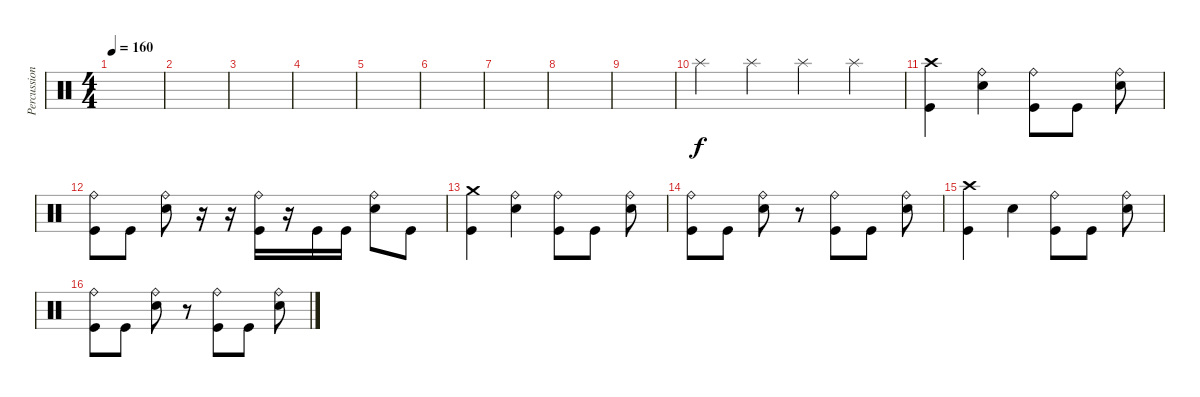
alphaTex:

\track ("Percussion" "Percussion") {instrument percussion}
\staff {score}
\articulation defaults
\ts (4 4)
\tempo 160
\clef neutral
\ks c
|
|
|
|
|
|
|
|
|
"Splash (hit)".4 "Splash (hit)".4 "Splash (hit)".4 "Splash (hit)".4 |
("Kick (hit)" "Crash high (hit)").4 ("Electric Snare (hit)" "Ride (bell)").4 ("Kick (hit)" "Ride (bell)").8 "Kick (hit)".8 ("Electric Snare (hit)" "Ride (bell)").8 |
("Ride (bell)" "Kick (hit)").8 "Kick (hit)".8 ("Ride (bell)" "Electric Snare (hit)").8 r.16 r.16 ("Ride (bell)" "Kick (hit)").16 r.16 "Kick (hit)".16 "Kick (hit)".16 ("Ride (bell)" "Electric Snare (hit)").8 "Kick (hit)".8 |
("Crash medium (hit)" "Kick (hit)").4 ("Ride (bell)" "Electric Snare (hit)").4 ("Ride (bell)" "Kick (hit)").8 "Kick (hit)".8 ("Ride (bell)" "Electric Snare (hit)").8 |
("Ride (bell)" "Kick (hit)").8 "Kick (hit)".8 ("Ride (bell)" "Electric Snare (hit)").8 r.8 ("Ride (bell)" "Kick (hit)").8 "Kick (hit)".8 ("Ride (bell)" "Electric Snare (hit)").8 |
("Crash high (hit)" "Kick (hit)").4 "Electric Snare (hit)".4 ("Ride (bell)" "Kick (hit)").8 "Kick (hit)".8 ("Ride (bell)" "Electric Snare (hit)").8 |
("Ride (bell)" "Kick (hit)").8 "Kick (hit)".8 ("Ride (bell)" "Electric Snare (hit)").8 r.8 ("Ride (bell)" "Kick (hit)").8 "Kick (hit)".8 ("Ride (bell)" "Electric Snare (hit)").8
